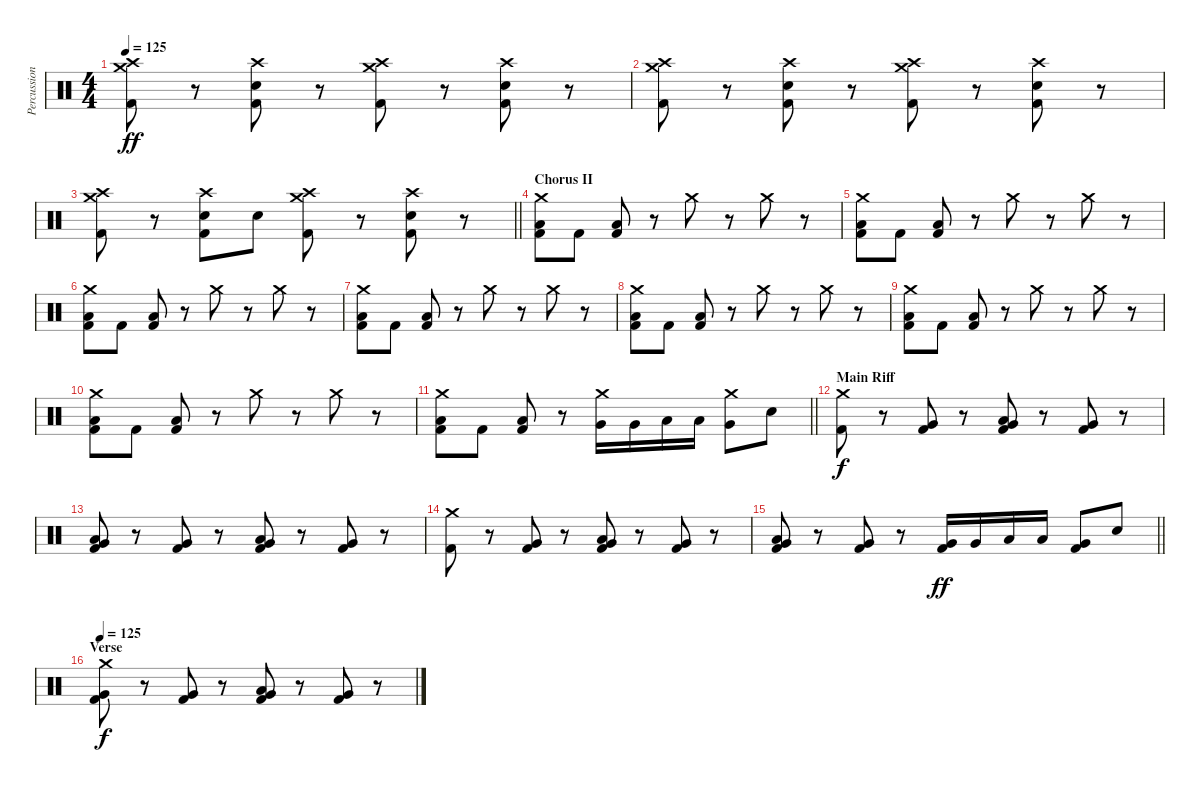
\track ("Percussion" "Percussion") {instrument percussion}
\staff {score}
\articulation defaults
\ts (4 4)
\tempo 125
\clef neutral
\ks c
("Crash medium (hit)" "Crash high (hit)" "Kick (hit) 2").8{dy ff} r.8 ("Crash high (hit)" "Electric Snare (hit)" "Kick (hit) 2").8 r.8 ("Crash medium (hit)" "Crash high (hit)" "Kick (hit) 2").8 r.8 ("Crash high (hit)" "Electric Snare (hit)" "Kick (hit) 2").8 r.8 |
("Crash medium (hit)" "Crash high (hit)" "Kick (hit) 2").8 r.8 ("Crash high (hit)" "Electric Snare (hit)" "Kick (hit) 2").8 r.8 ("Crash medium (hit)" "Crash high (hit)" "Kick (hit) 2").8 r.8 ("Crash high (hit)" "Electric Snare (hit)" "Kick (hit) 2").8 r.8 |
\barLineRight lightlight
("Crash medium (hit)" "Crash high (hit)" "Kick (hit) 2").8 r.8 ("Crash high (hit)" "Electric Snare (hit)" "Kick (hit) 2").8 "Electric Snare (hit)".8 ("Crash medium (hit)" "Crash high (hit)" "Kick (hit) 2").8 r.8 ("Crash high (hit)" "Electric Snare (hit)" "Kick (hit) 2").8 r.8 |
\section ("" "Chorus II")
("Crash medium (hit)" "Low Floor Tom (hit)" "Kick (hit) 2").8 "Kick (hit) 2".8 ("Low Floor Tom (hit)" "Kick (hit) 2").8 r.8 "Crash medium (hit)".8 r.8 "Crash medium (hit)".8 r.8 |
("Crash medium (hit)" "Low Floor Tom (hit)" "Kick (hit) 2").8 "Kick (hit) 2".8 ("Low Floor Tom (hit)" "Kick (hit) 2").8 r.8 "Crash medium (hit)".8 r.8 "Crash medium (hit)".8 r.8 |
("Crash medium (hit)" "Low Floor Tom (hit)" "Kick (hit) 2").8 "Kick (hit) 2".8 ("Low Floor Tom (hit)" "Kick (hit) 2").8 r.8 "Crash medium (hit)".8 r.8 "Crash medium (hit)".8 r.8 |
("Crash medium (hit)" "Low Floor Tom (hit)" "Kick (hit) 2").8 "Kick (hit) 2".8 ("Low Floor Tom (hit)" "Kick (hit) 2").8 r.8 "Crash medium (hit)".8 r.8 "Crash medium (hit)".8 r.8 |
("Crash medium (hit)" "Low Floor Tom (hit)" "Kick (hit) 2").8 "Kick (hit) 2".8 ("Low Floor Tom (hit)" "Kick (hit) 2").8 r.8 "Crash medium (hit)".8 r.8 "Crash medium (hit)".8 r.8 |
("Crash medium (hit)" "Low Floor Tom (hit)" "Kick (hit) 2").8 "Kick (hit) 2".8 ("Low Floor Tom (hit)" "Kick (hit) 2").8 r.8 "Crash medium (hit)".8 r.8 "Crash medium (hit)".8 r.8 |
("Crash medium (hit)" "Low Floor Tom (hit)" "Kick (hit) 2").8 "Kick (hit) 2".8 ("Low Floor Tom (hit)" "Kick (hit) 2").8 r.8 "Crash medium (hit)".8 r.8 "Crash medium (hit)".8 r.8 |
\barLineRight lightlight
("Crash medium (hit)" "Low Floor Tom (hit)" "Kick (hit) 2").8 "Kick (hit) 2".8 ("Low Floor Tom (hit)" "Kick (hit) 2").8 r.8 ("Crash medium (hit)" "Very Low Tom (hit)").16 "Very Low Tom (hit)".16 "Low Floor Tom (hit)".16 "Low Floor Tom (hit)".16 ("Crash medium (hit)" "Very Low Tom (hit)").8 "Electric Snare (hit)".8 |
\section ("" "Main Riff")
("Crash medium (hit)" "Kick (hit) 2").8{dy f} r.8 ("Very Low Tom (hit)" "Kick (hit) 2").8 r.8 ("Very Low Tom (hit)" "Low Floor Tom (hit)" "Kick (hit) 2").8 r.8 ("Very Low Tom (hit)" "Kick (hit) 2").8 r.8 |
("Very Low Tom (hit)" "Low Floor Tom (hit)" "Kick (hit) 2").8 r.8 ("Very Low Tom (hit)" "Kick (hit) 2").8 r.8 ("Very Low Tom (hit)" "Low Floor Tom (hit)" "Kick (hit) 2").8 r.8 ("Very Low Tom (hit)" "Kick (hit) 2").8 r.8 |
("Crash medium (hit)" "Kick (hit) 2").8 r.8 ("Very Low Tom (hit)" "Kick (hit) 2").8 r.8 ("Very Low Tom (hit)" "Low Floor Tom (hit)" "Kick (hit) 2").8 r.8 ("Very Low Tom (hit)" "Kick (hit) 2").8 r.8 |
\barLineRight lightlight
("Very Low Tom (hit)" "Low Floor Tom (hit)" "Kick (hit) 2").8 r.8 ("Very Low Tom (hit)" "Kick (hit) 2").8 r.8 ("Very Low Tom (hit)" "Kick (hit) 2").16{dy ff} "Very Low Tom (hit)".16 "Low Floor Tom (hit)".16 "Low Floor Tom (hit)".16 ("Very Low Tom (hit)" "Kick (hit) 2").8 "Electric Snare (hit)".8 |
\section ("" "Verse")
\tempo 125
("Crash medium (hit)" "Very Low Tom (hit)" "Kick (hit) 2").8{dy f} r.8 ("Very Low Tom (hit)" "Kick (hit) 2").8 r.8 ("Very Low Tom (hit)" "Low Floor Tom (hit)" "Kick (hit) 2").8 r.8 ("Very Low Tom (hit)" "Kick (hit) 2").8 r.8
